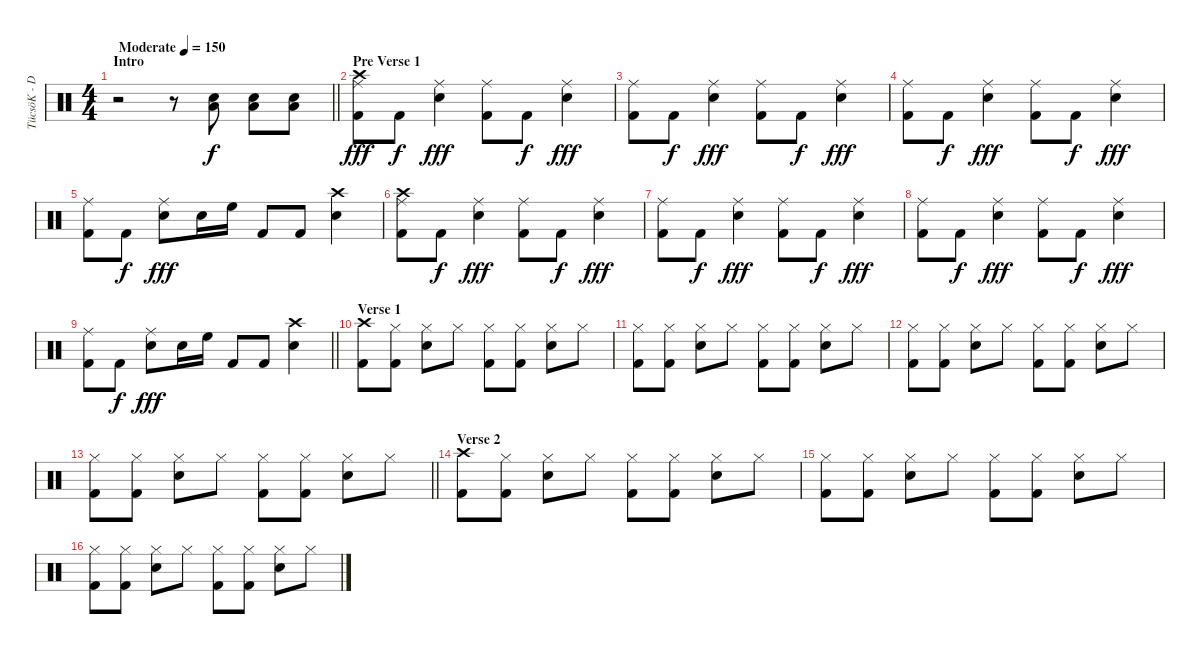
\track ("TücsöK - Dob" "TücsöK - D") {instrument percussion}
\staff {score}
\articulation defaults
\ts (4 4)
\section ("" "Intro")
\tempo (150 "Moderate")
\clef neutral
\barLineRight lightlight
\ks c
r.2{dy f} r.8 ("Snare (hit) 2" "Low Tom (hit)").8 ("Snare (hit) 2" "Low Tom (hit)").8 ("Snare (hit) 2" "Low Tom (hit)").8 |
\section ("" "Pre Verse 1")
("Crash high (hit)" "Ride (middle)" "Kick (hit) 2").8{dy fff} "Kick (hit) 2".8{dy f} ("Ride (middle)" "Snare (hit) 2").4{dy fff} ("Ride (middle)" "Kick (hit) 2").8 "Kick (hit) 2".8{dy f} ("Ride (middle)" "Snare (hit) 2").4{dy fff} |
("Ride (middle)" "Kick (hit) 2").8 "Kick (hit) 2".8{dy f} ("Ride (middle)" "Snare (hit) 2").4{dy fff} ("Ride (middle)" "Kick (hit) 2").8 "Kick (hit) 2".8{dy f} ("Ride (middle)" "Snare (hit) 2").4{dy fff} |
("Ride (middle)" "Kick (hit) 2").8 "Kick (hit) 2".8{dy f} ("Ride (middle)" "Snare (hit) 2").4{dy fff} ("Ride (middle)" "Kick (hit) 2").8 "Kick (hit) 2".8{dy f} ("Ride (middle)" "Snare (hit) 2").4{dy fff} |
("Ride (middle)" "Kick (hit) 2").8 "Kick (hit) 2".8{dy f} ("Ride (middle)" "Snare (hit) 2").8{dy fff} "Snare (hit) 2".16 "High Floor Tom (hit)".16 "Kick (hit) 2".8 "Kick (hit) 2".8 ("Crash high (hit)" "Snare (hit) 2").4 |
("Crash high (hit)" "Ride (middle)" "Kick (hit) 2").8 "Kick (hit) 2".8{dy f} ("Ride (middle)" "Snare (hit) 2").4{dy fff} ("Ride (middle)" "Kick (hit) 2").8 "Kick (hit) 2".8{dy f} ("Ride (middle)" "Snare (hit) 2").4{dy fff} |
("Ride (middle)" "Kick (hit) 2").8 "Kick (hit) 2".8{dy f} ("Ride (middle)" "Snare (hit) 2").4{dy fff} ("Ride (middle)" "Kick (hit) 2").8 "Kick (hit) 2".8{dy f} ("Ride (middle)" "Snare (hit) 2").4{dy fff} |
("Ride (middle)" "Kick (hit) 2").8 "Kick (hit) 2".8{dy f} ("Ride (middle)" "Snare (hit) 2").4{dy fff} ("Ride (middle)" "Kick (hit) 2").8 "Kick (hit) 2".8{dy f} ("Ride (middle)" "Snare (hit) 2").4{dy fff} |
\barLineRight lightlight
("Ride (middle)" "Kick (hit) 2").8 "Kick (hit) 2".8{dy f} ("Ride (middle)" "Snare (hit) 2").8{dy fff} "Snare (hit) 2".16 "High Floor Tom (hit)".16 "Kick (hit) 2".8 "Kick (hit) 2".8 ("Crash high (hit)" "Snare (hit) 2").4 |
\section ("" "Verse 1")
("Crash high (hit)" "Kick (hit) 2").8 ("Hi-Hat (closed)" "Kick (hit) 2").8 ("Hi-Hat (closed)" "Snare (hit) 2").8 "Hi-Hat (closed)".8 ("Hi-Hat (closed)" "Kick (hit) 2").8 ("Hi-Hat (closed)" "Kick (hit) 2").8 ("Hi-Hat (closed)" "Snare (hit) 2").8 "Hi-Hat (closed)".8 |
("Hi-Hat (closed)" "Kick (hit) 2").8 ("Hi-Hat (closed)" "Kick (hit) 2").8 ("Hi-Hat (closed)" "Snare (hit) 2").8 "Hi-Hat (closed)".8 ("Hi-Hat (closed)" "Kick (hit) 2").8 ("Hi-Hat (closed)" "Kick (hit) 2").8 ("Hi-Hat (closed)" "Snare (hit) 2").8 "Hi-Hat (closed)".8 |
("Hi-Hat (closed)" "Kick (hit) 2").8 ("Hi-Hat (closed)" "Kick (hit) 2").8 ("Hi-Hat (closed)" "Snare (hit) 2").8 "Hi-Hat (closed)".8 ("Hi-Hat (closed)" "Kick (hit) 2").8 ("Hi-Hat (closed)" "Kick (hit) 2").8 ("Hi-Hat (closed)" "Snare (hit) 2").8 "Hi-Hat (closed)".8 |
\barLineRight lightlight
("Hi-Hat (closed)" "Kick (hit) 2").8 ("Hi-Hat (closed)" "Kick (hit) 2").8 ("Hi-Hat (closed)" "Snare (hit) 2").8 "Hi-Hat (closed)".8 ("Hi-Hat (closed)" "Kick (hit) 2").8 ("Hi-Hat (closed)" "Kick (hit) 2").8 ("Hi-Hat (closed)" "Snare (hit) 2").8 "Hi-Hat (closed)".8 |
\section ("" "Verse 2")
("Crash high (hit)" "Kick (hit) 2").8 ("Hi-Hat (closed)" "Kick (hit) 2").8 ("Hi-Hat (closed)" "Snare (hit) 2").8 "Hi-Hat (closed)".8 ("Hi-Hat (closed)" "Kick (hit) 2").8 ("Hi-Hat (closed)" "Kick (hit) 2").8 ("Hi-Hat (closed)" "Snare (hit) 2").8 "Hi-Hat (closed)".8 |
("Hi-Hat (closed)" "Kick (hit) 2").8 ("Hi-Hat (closed)" "Kick (hit) 2").8 ("Hi-Hat (closed)" "Snare (hit) 2").8 "Hi-Hat (closed)".8 ("Hi-Hat (closed)" "Kick (hit) 2").8 ("Hi-Hat (closed)" "Kick (hit) 2").8 ("Hi-Hat (closed)" "Snare (hit) 2").8 "Hi-Hat (closed)".8 |
("Hi-Hat (closed)" "Kick (hit) 2").8 ("Hi-Hat (closed)" "Kick (hit) 2").8 ("Hi-Hat (closed)" "Snare (hit) 2").8 "Hi-Hat (closed)".8 ("Hi-Hat (closed)" "Kick (hit) 2").8 ("Hi-Hat (closed)" "Kick (hit) 2").8 ("Hi-Hat (closed)" "Snare (hit) 2").8 "Hi-Hat (closed)".8
